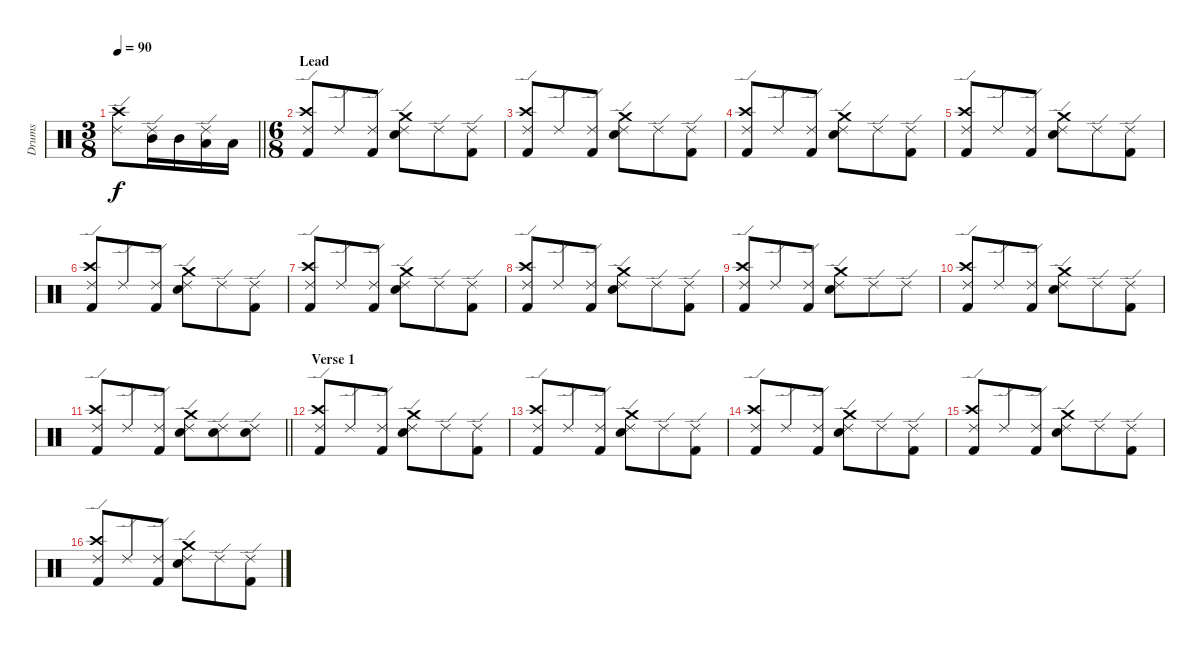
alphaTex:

\track ("Drums" "Drums") {instrument percussion}
\staff {score}
\articulation defaults
\ts (3 8)
\tempo 90
\clef neutral
\barLineRight lightlight
\ks c
("Ride (edge) 2" "Crash high (hit)").8{dy f} ("Ride (edge) 2" "Mid Tom (hit)").16 "Mid Tom (hit)".16 ("Ride (edge) 2" "Low Tom (hit)").16 "Low Tom (hit)".16 |
\ts (6 8)
\section ("" "Lead")
("Ride (edge) 2" "Kick (hit) 2" "Crash high (hit)").8 "Ride (edge) 2".8 ("Ride (edge) 2" "Kick (hit) 2").8 ("Ride (edge) 2" "Snare (hit) 2" "Crash medium (hit)").8 "Ride (edge) 2".8 ("Ride (edge) 2" "Kick (hit) 2").8 |
("Ride (edge) 2" "Kick (hit) 2" "Crash high (hit)").8 "Ride (edge) 2".8 ("Ride (edge) 2" "Kick (hit) 2").8 ("Ride (edge) 2" "Snare (hit) 2" "Crash medium (hit)").8 "Ride (edge) 2".8 ("Ride (edge) 2" "Kick (hit) 2").8 |
("Ride (edge) 2" "Kick (hit) 2" "Crash high (hit)").8 "Ride (edge) 2".8 ("Ride (edge) 2" "Kick (hit) 2").8 ("Ride (edge) 2" "Snare (hit) 2" "Crash medium (hit)").8 "Ride (edge) 2".8 ("Ride (edge) 2" "Kick (hit) 2").8 |
("Ride (edge) 2" "Kick (hit) 2" "Crash high (hit)").8 "Ride (edge) 2".8 ("Ride (edge) 2" "Kick (hit) 2").8 ("Ride (edge) 2" "Snare (hit) 2" "Crash medium (hit)").8 "Ride (edge) 2".8 ("Ride (edge) 2" "Kick (hit) 2").8 |
("Ride (edge) 2" "Kick (hit) 2" "Crash high (hit)").8 "Ride (edge) 2".8 ("Ride (edge) 2" "Kick (hit) 2").8 ("Ride (edge) 2" "Snare (hit) 2" "Crash medium (hit)").8 "Ride (edge) 2".8 ("Ride (edge) 2" "Kick (hit) 2").8 |
("Ride (edge) 2" "Kick (hit) 2" "Crash high (hit)").8 "Ride (edge) 2".8 ("Ride (edge) 2" "Kick (hit) 2").8 ("Ride (edge) 2" "Snare (hit) 2" "Crash medium (hit)").8 "Ride (edge) 2".8 ("Ride (edge) 2" "Kick (hit) 2").8 |
("Ride (edge) 2" "Kick (hit) 2" "Crash high (hit)").8 "Ride (edge) 2".8 ("Ride (edge) 2" "Kick (hit) 2").8 ("Ride (edge) 2" "Snare (hit) 2" "Crash medium (hit)").8 "Ride (edge) 2".8 ("Ride (edge) 2" "Kick (hit) 2").8 |
("Ride (edge) 2" "Kick (hit) 2" "Crash high (hit)").8 "Ride (edge) 2".8 ("Ride (edge) 2" "Kick (hit) 2").8 ("Ride (edge) 2" "Snare (hit) 2" "Crash medium (hit)").8 "Ride (edge) 2".8 "Ride (edge) 2".8 |
("Ride (edge) 2" "Kick (hit) 2" "Crash high (hit)").8 "Ride (edge) 2".8 ("Ride (edge) 2" "Kick (hit) 2").8 ("Ride (edge) 2" "Snare (hit) 2" "Crash medium (hit)").8 "Ride (edge) 2".8 ("Ride (edge) 2" "Kick (hit) 2").8 |
\barLineRight lightlight
("Ride (edge) 2" "Kick (hit) 2" "Crash high (hit)").8 "Ride (edge) 2".8 ("Ride (edge) 2" "Kick (hit) 2").8 ("Ride (edge) 2" "Snare (hit) 2" "Crash medium (hit)").8 ("Ride (edge) 2" "Snare (hit) 2").8 ("Ride (edge) 2" "Snare (hit) 2").8 |
\section ("" "Verse 1")
("Ride (edge) 2" "Kick (hit) 2" "Crash high (hit)").8 "Ride (edge) 2".8 ("Ride (edge) 2" "Kick (hit) 2").8 ("Ride (edge) 2" "Snare (hit) 2" "Crash medium (hit)").8 "Ride (edge) 2".8 ("Ride (edge) 2" "Kick (hit) 2").8 |
("Ride (edge) 2" "Kick (hit) 2" "Crash high (hit)").8 "Ride (edge) 2".8 ("Ride (edge) 2" "Kick (hit) 2").8 ("Ride (edge) 2" "Snare (hit) 2" "Crash medium (hit)").8 "Ride (edge) 2".8 ("Ride (edge) 2" "Kick (hit) 2").8 |
("Ride (edge) 2" "Kick (hit) 2" "Crash high (hit)").8 "Ride (edge) 2".8 ("Ride (edge) 2" "Kick (hit) 2").8 ("Ride (edge) 2" "Snare (hit) 2" "Crash medium (hit)").8 "Ride (edge) 2".8 ("Ride (edge) 2" "Kick (hit) 2").8 |
("Ride (edge) 2" "Kick (hit) 2" "Crash high (hit)").8 "Ride (edge) 2".8 ("Ride (edge) 2" "Kick (hit) 2").8 ("Ride (edge) 2" "Snare (hit) 2" "Crash medium (hit)").8 "Ride (edge) 2".8 ("Ride (edge) 2" "Kick (hit) 2").8 |
("Ride (edge) 2" "Kick (hit) 2" "Crash high (hit)").8 "Ride (edge) 2".8 ("Ride (edge) 2" "Kick (hit) 2").8 ("Ride (edge) 2" "Snare (hit) 2" "Crash medium (hit)").8 "Ride (edge) 2".8 ("Ride (edge) 2" "Kick (hit) 2").8
